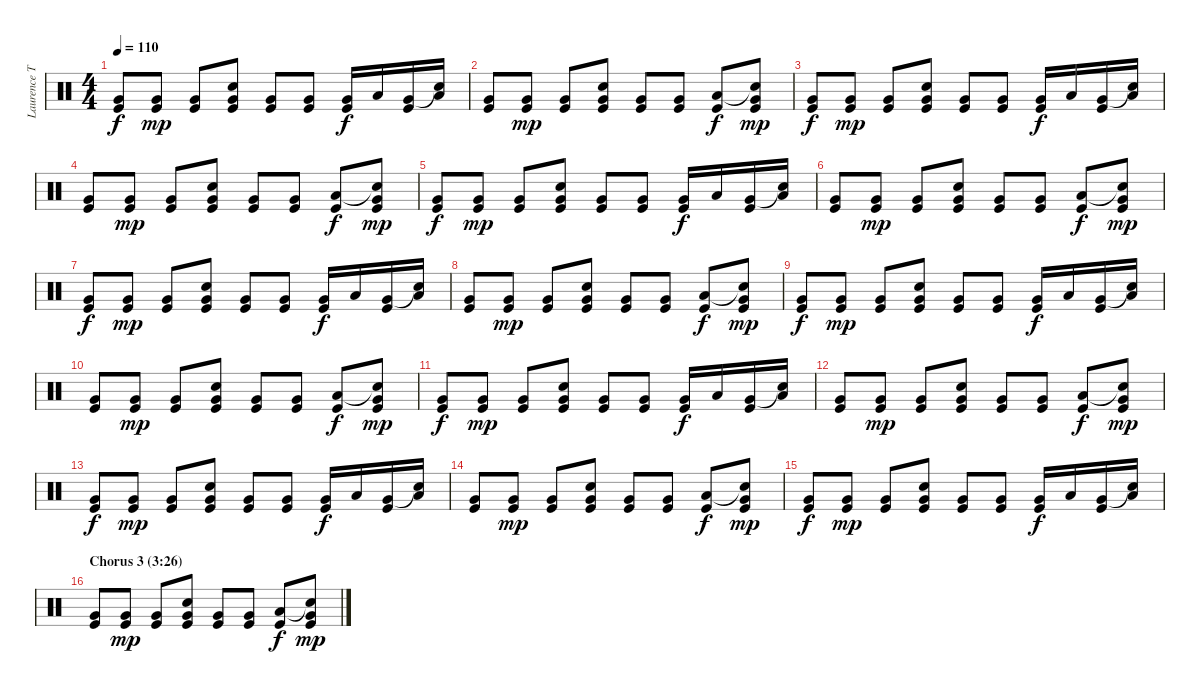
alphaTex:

\track ("Laurence Tolhurst (drums)" "Laurence T") {instrument percussion}
\staff {score}
\articulation defaults
\ts (4 4)
\tempo 110
\clef neutral
\ks c
("Very Low Tom (hit)" "Kick (hit)").8{dy f} ("Very Low Tom (hit)" "Kick (hit)").8{dy mp} ("Very Low Tom (hit)" "Kick (hit)").8 ("Snare (hit) 2" "Very Low Tom (hit)" "Kick (hit)").8 ("Very Low Tom (hit)" "Kick (hit)").8 ("Very Low Tom (hit)" "Kick (hit)").8 ("Very Low Tom (hit)" "Kick (hit)").16{dy f} "Low Tom (hit)".16 ("Very Low Tom (hit)" "Kick (hit)").16 ("Snare (hit)"{t} "Low Tom (hit)").16 |
("Very Low Tom (hit)" "Kick (hit)").8 ("Very Low Tom (hit)" "Kick (hit)").8{dy mp} ("Very Low Tom (hit)" "Kick (hit)").8 ("Snare (hit) 2" "Very Low Tom (hit)" "Kick (hit)").8 ("Very Low Tom (hit)" "Kick (hit)").8 ("Very Low Tom (hit)" "Kick (hit)").8 ("Low Tom (hit)" "Kick (hit)").8{dy f} ("Snare (hit)"{t} "Very Low Tom (hit)" "Kick (hit)").8{dy mp} |
("Very Low Tom (hit)" "Kick (hit)").8{dy f} ("Very Low Tom (hit)" "Kick (hit)").8{dy mp} ("Very Low Tom (hit)" "Kick (hit)").8 ("Snare (hit) 2" "Very Low Tom (hit)" "Kick (hit)").8 ("Very Low Tom (hit)" "Kick (hit)").8 ("Very Low Tom (hit)" "Kick (hit)").8 ("Very Low Tom (hit)" "Kick (hit)").16{dy f} "Low Tom (hit)".16 ("Very Low Tom (hit)" "Kick (hit)").16 ("Snare (hit)"{t} "Low Tom (hit)").16 |
("Very Low Tom (hit)" "Kick (hit)").8 ("Very Low Tom (hit)" "Kick (hit)").8{dy mp} ("Very Low Tom (hit)" "Kick (hit)").8 ("Snare (hit) 2" "Very Low Tom (hit)" "Kick (hit)").8 ("Very Low Tom (hit)" "Kick (hit)").8 ("Very Low Tom (hit)" "Kick (hit)").8 ("Low Tom (hit)" "Kick (hit)").8{dy f} ("Snare (hit)"{t} "Very Low Tom (hit)" "Kick (hit)").8{dy mp} |
("Very Low Tom (hit)" "Kick (hit)").8{dy f} ("Very Low Tom (hit)" "Kick (hit)").8{dy mp} ("Very Low Tom (hit)" "Kick (hit)").8 ("Snare (hit) 2" "Very Low Tom (hit)" "Kick (hit)").8 ("Very Low Tom (hit)" "Kick (hit)").8 ("Very Low Tom (hit)" "Kick (hit)").8 ("Very Low Tom (hit)" "Kick (hit)").16{dy f} "Low Tom (hit)".16 ("Very Low Tom (hit)" "Kick (hit)").16 ("Snare (hit)"{t} "Low Tom (hit)").16 |
("Very Low Tom (hit)" "Kick (hit)").8 ("Very Low Tom (hit)" "Kick (hit)").8{dy mp} ("Very Low Tom (hit)" "Kick (hit)").8 ("Snare (hit) 2" "Very Low Tom (hit)" "Kick (hit)").8 ("Very Low Tom (hit)" "Kick (hit)").8 ("Very Low Tom (hit)" "Kick (hit)").8 ("Low Tom (hit)" "Kick (hit)").8{dy f} ("Snare (hit)"{t} "Very Low Tom (hit)" "Kick (hit)").8{dy mp} |
("Very Low Tom (hit)" "Kick (hit)").8{dy f} ("Very Low Tom (hit)" "Kick (hit)").8{dy mp} ("Very Low Tom (hit)" "Kick (hit)").8 ("Snare (hit) 2" "Very Low Tom (hit)" "Kick (hit)").8 ("Very Low Tom (hit)" "Kick (hit)").8 ("Very Low Tom (hit)" "Kick (hit)").8 ("Very Low Tom (hit)" "Kick (hit)").16{dy f} "Low Tom (hit)".16 ("Very Low Tom (hit)" "Kick (hit)").16 ("Snare (hit)"{t} "Low Tom (hit)").16 |
("Very Low Tom (hit)" "Kick (hit)").8 ("Very Low Tom (hit)" "Kick (hit)").8{dy mp} ("Very Low Tom (hit)" "Kick (hit)").8 ("Snare (hit) 2" "Very Low Tom (hit)" "Kick (hit)").8 ("Very Low Tom (hit)" "Kick (hit)").8 ("Very Low Tom (hit)" "Kick (hit)").8 ("Low Tom (hit)" "Kick (hit)").8{dy f} ("Snare (hit)"{t} "Very Low Tom (hit)" "Kick (hit)").8{dy mp} |
("Very Low Tom (hit)" "Kick (hit)").8{dy f} ("Very Low Tom (hit)" "Kick (hit)").8{dy mp} ("Very Low Tom (hit)" "Kick (hit)").8 ("Snare (hit) 2" "Very Low Tom (hit)" "Kick (hit)").8 ("Very Low Tom (hit)" "Kick (hit)").8 ("Very Low Tom (hit)" "Kick (hit)").8 ("Very Low Tom (hit)" "Kick (hit)").16{dy f} "Low Tom (hit)".16 ("Very Low Tom (hit)" "Kick (hit)").16 ("Snare (hit)"{t} "Low Tom (hit)").16 |
("Very Low Tom (hit)" "Kick (hit)").8 ("Very Low Tom (hit)" "Kick (hit)").8{dy mp} ("Very Low Tom (hit)" "Kick (hit)").8 ("Snare (hit) 2" "Very Low Tom (hit)" "Kick (hit)").8 ("Very Low Tom (hit)" "Kick (hit)").8 ("Very Low Tom (hit)" "Kick (hit)").8 ("Low Tom (hit)" "Kick (hit)").8{dy f} ("Snare (hit)"{t} "Very Low Tom (hit)" "Kick (hit)").8{dy mp} |
("Very Low Tom (hit)" "Kick (hit)").8{dy f} ("Very Low Tom (hit)" "Kick (hit)").8{dy mp} ("Very Low Tom (hit)" "Kick (hit)").8 ("Snare (hit) 2" "Very Low Tom (hit)" "Kick (hit)").8 ("Very Low Tom (hit)" "Kick (hit)").8 ("Very Low Tom (hit)" "Kick (hit)").8 ("Very Low Tom (hit)" "Kick (hit)").16{dy f} "Low Tom (hit)".16 ("Very Low Tom (hit)" "Kick (hit)").16 ("Snare (hit)"{t} "Low Tom (hit)").16 |
("Very Low Tom (hit)" "Kick (hit)").8 ("Very Low Tom (hit)" "Kick (hit)").8{dy mp} ("Very Low Tom (hit)" "Kick (hit)").8 ("Snare (hit) 2" "Very Low Tom (hit)" "Kick (hit)").8 ("Very Low Tom (hit)" "Kick (hit)").8 ("Very Low Tom (hit)" "Kick (hit)").8 ("Low Tom (hit)" "Kick (hit)").8{dy f} ("Snare (hit)"{t} "Very Low Tom (hit)" "Kick (hit)").8{dy mp} |
("Very Low Tom (hit)" "Kick (hit)").8{dy f} ("Very Low Tom (hit)" "Kick (hit)").8{dy mp} ("Very Low Tom (hit)" "Kick (hit)").8 ("Snare (hit) 2" "Very Low Tom (hit)" "Kick (hit)").8 ("Very Low Tom (hit)" "Kick (hit)").8 ("Very Low Tom (hit)" "Kick (hit)").8 ("Very Low Tom (hit)" "Kick (hit)").16{dy f} "Low Tom (hit)".16 ("Very Low Tom (hit)" "Kick (hit)").16 ("Snare (hit)"{t} "Low Tom (hit)").16 |
("Very Low Tom (hit)" "Kick (hit)").8 ("Very Low Tom (hit)" "Kick (hit)").8{dy mp} ("Very Low Tom (hit)" "Kick (hit)").8 ("Snare (hit) 2" "Very Low Tom (hit)" "Kick (hit)").8 ("Very Low Tom (hit)" "Kick (hit)").8 ("Very Low Tom (hit)" "Kick (hit)").8 ("Low Tom (hit)" "Kick (hit)").8{dy f} ("Snare (hit)"{t} "Very Low Tom (hit)" "Kick (hit)").8{dy mp} |
("Very Low Tom (hit)" "Kick (hit)").8{dy f} ("Very Low Tom (hit)" "Kick (hit)").8{dy mp} ("Very Low Tom (hit)" "Kick (hit)").8 ("Snare (hit) 2" "Very Low Tom (hit)" "Kick (hit)").8 ("Very Low Tom (hit)" "Kick (hit)").8 ("Very Low Tom (hit)" "Kick (hit)").8 ("Very Low Tom (hit)" "Kick (hit)").16{dy f} "Low Tom (hit)".16 ("Very Low Tom (hit)" "Kick (hit)").16 ("Snare (hit)"{t} "Low Tom (hit)").16 |
\section ("" "Chorus 3 (3:26)")
("Very Low Tom (hit)" "Kick (hit)").8 ("Very Low Tom (hit)" "Kick (hit)").8{dy mp} ("Very Low Tom (hit)" "Kick (hit)").8 ("Snare (hit) 2" "Very Low Tom (hit)" "Kick (hit)").8 ("Very Low Tom (hit)" "Kick (hit)").8 ("Very Low Tom (hit)" "Kick (hit)").8 ("Low Tom (hit)" "Kick (hit)").8{dy f} ("Snare (hit)"{t} "Very Low Tom (hit)" "Kick (hit)").8{dy mp}
